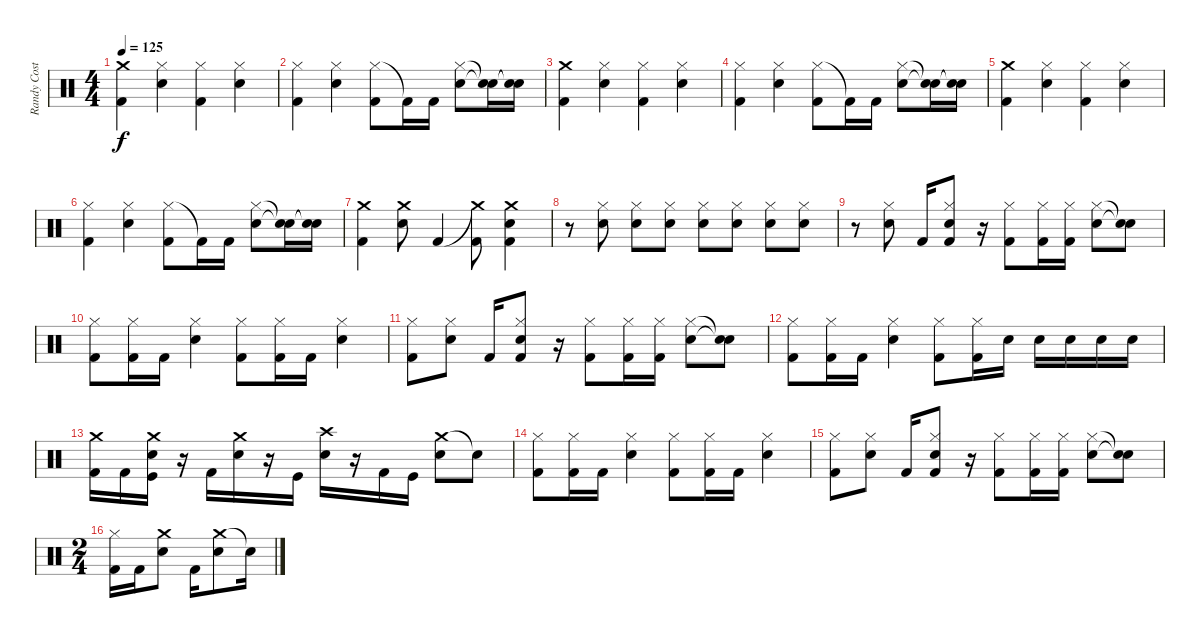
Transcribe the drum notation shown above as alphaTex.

\track ("Randy Costillo" "Randy Cost") {instrument percussion}
\staff {score}
\articulation defaults
\ts (4 4)
\tempo 125
\clef neutral
\ks c
("Crash medium (hit)" "Kick (hit) 2").4{dy f} ("Hi-Hat (closed)" "Snare (hit) 2").4 ("Hi-Hat (closed)" "Kick (hit) 2").4 ("Hi-Hat (closed)" "Snare (hit) 2").4 |
("Hi-Hat (closed)" "Kick (hit) 2").4 ("Hi-Hat (closed)" "Snare (hit) 2").4 ("Hi-Hat (closed)" "Kick (hit) 2").8 "Kick (hit) 2"{t}.16 "Kick (hit) 2".16 ("Hi-Hat (closed)" "Snare (hit) 2").8 ("Snare (hit)"{t} "Snare (hit)"{t}).16 ("Snare (hit)"{t} "Snare (hit)"{t}).16 |
("Crash medium (hit)" "Kick (hit) 2").4 ("Hi-Hat (closed)" "Snare (hit) 2").4 ("Hi-Hat (closed)" "Kick (hit) 2").4 ("Hi-Hat (closed)" "Snare (hit) 2").4 |
("Hi-Hat (closed)" "Kick (hit) 2").4 ("Hi-Hat (closed)" "Snare (hit) 2").4 ("Hi-Hat (closed)" "Kick (hit) 2").8 "Kick (hit) 2"{t}.16 "Kick (hit) 2".16 ("Hi-Hat (closed)" "Snare (hit) 2").8 ("Snare (hit)"{t} "Snare (hit)"{t}).16 ("Snare (hit)"{t} "Snare (hit)"{t}).16 |
("Crash medium (hit)" "Kick (hit) 2").4 ("Hi-Hat (closed)" "Snare (hit) 2").4 ("Hi-Hat (closed)" "Kick (hit) 2").4 ("Hi-Hat (closed)" "Snare (hit) 2").4 |
("Hi-Hat (closed)" "Kick (hit) 2").4 ("Hi-Hat (closed)" "Snare (hit) 2").4 ("Hi-Hat (closed)" "Kick (hit) 2").8 "Kick (hit) 2"{t}.16 "Kick (hit) 2".16 ("Hi-Hat (closed)" "Snare (hit) 2").8 ("Snare (hit)"{t} "Snare (hit)"{t}).16 ("Snare (hit)"{t} "Snare (hit)"{t}).16 |
("Crash medium (hit)" "Kick (hit) 2").4 ("Crash medium (hit)" "Snare (hit) 2").8 "Kick (hit) 2".4 ("Crash medium (hit)"{t} "Kick (hit) 2").8 ("Crash medium (hit)" "Snare (hit) 2" "Kick (hit) 2").4 |
r.8 ("Hi-Hat (closed)" "Snare (hit) 2").8 ("Hi-Hat (closed)" "Snare (hit) 2").8 ("Hi-Hat (closed)" "Snare (hit) 2").8 ("Hi-Hat (closed)" "Snare (hit) 2").8 ("Hi-Hat (closed)" "Snare (hit) 2").8 ("Hi-Hat (closed)" "Snare (hit) 2").8 ("Hi-Hat (closed)" "Snare (hit) 2").8 |
r.8 ("Hi-Hat (closed)" "Snare (hit) 2").8 "Kick (hit) 2".16 ("Hi-Hat (closed)" "Snare (hit) 2" "Kick (hit) 2").8 r.16 ("Hi-Hat (closed)" "Kick (hit) 2").8 ("Hi-Hat (closed)" "Kick (hit) 2").16 ("Hi-Hat (closed)" "Kick (hit) 2").16 ("Hi-Hat (closed)" "Snare (hit) 2").8 ("Snare (hit)"{t} "Snare (hit)"{t}).8 |
("Hi-Hat (closed)" "Kick (hit) 2").8 ("Hi-Hat (closed)" "Kick (hit) 2").16 "Kick (hit) 2".16 ("Hi-Hat (closed)" "Snare (hit) 2").4 ("Hi-Hat (closed)" "Kick (hit) 2").8 ("Hi-Hat (closed)" "Kick (hit) 2").16 "Kick (hit) 2".16 ("Hi-Hat (closed)" "Snare (hit) 2").4 |
("Hi-Hat (closed)" "Kick (hit) 2").8 ("Hi-Hat (closed)" "Snare (hit) 2").8 "Kick (hit) 2".16 ("Hi-Hat (closed)" "Snare (hit) 2" "Kick (hit) 2").8 r.16 ("Hi-Hat (closed)" "Kick (hit) 2").8 ("Hi-Hat (closed)" "Kick (hit) 2").16 ("Hi-Hat (closed)" "Kick (hit) 2").16 ("Hi-Hat (closed)" "Snare (hit) 2").8 ("Snare (hit)"{t} "Snare (hit)"{t}).8 |
("Hi-Hat (closed)" "Kick (hit) 2").8 ("Hi-Hat (closed)" "Kick (hit) 2").16 "Kick (hit) 2".16 ("Hi-Hat (closed)" "Snare (hit) 2").4 ("Hi-Hat (closed)" "Kick (hit) 2").8 ("Hi-Hat (closed)" "Kick (hit) 2").16 "Snare (hit) 2".16 "Snare (hit) 2".16 "Snare (hit) 2".16 "Snare (hit) 2".16 "Snare (hit) 2".16 |
("Crash medium (hit)" "Kick (hit) 2").16 "Kick (hit) 2".16 ("Crash medium (hit)" "Snare (hit) 2" "Kick (hit)").16 r.16 "Kick (hit) 2".16 ("Crash medium (hit)" "Snare (hit) 2").16 r.16 "Kick (hit)".16 ("Crash high (hit)" "Snare (hit) 2").16 r.16 "Kick (hit) 2".16 "Kick (hit)".16 ("Crash medium (hit)" "Snare (hit) 2").8 "Snare (hit)"{t}.8 |
("Hi-Hat (closed)" "Kick (hit) 2").8 ("Hi-Hat (closed)" "Kick (hit) 2").16 "Kick (hit) 2".16 ("Hi-Hat (closed)" "Snare (hit) 2").4 ("Hi-Hat (closed)" "Kick (hit) 2").8 ("Hi-Hat (closed)" "Kick (hit) 2").16 "Kick (hit) 2".16 ("Hi-Hat (closed)" "Snare (hit) 2").4 |
("Hi-Hat (closed)" "Kick (hit) 2").8 ("Hi-Hat (closed)" "Snare (hit) 2").8 "Kick (hit) 2".16 ("Hi-Hat (closed)" "Snare (hit) 2" "Kick (hit) 2").8 r.16 ("Hi-Hat (closed)" "Kick (hit) 2").8 ("Hi-Hat (closed)" "Kick (hit) 2").16 ("Hi-Hat (closed)" "Kick (hit) 2").16 ("Hi-Hat (closed)" "Snare (hit) 2").8 ("Snare (hit)"{t} "Snare (hit)"{t}).8 |
\ts (2 4)
("Hi-Hat (closed)" "Kick (hit) 2").16 "Kick (hit) 2".16 ("Crash medium (hit)" "Snare (hit) 2").8 "Kick (hit) 2".16 ("Crash medium (hit)" "Snare (hit) 2").8 "Snare (hit)"{t}.16
